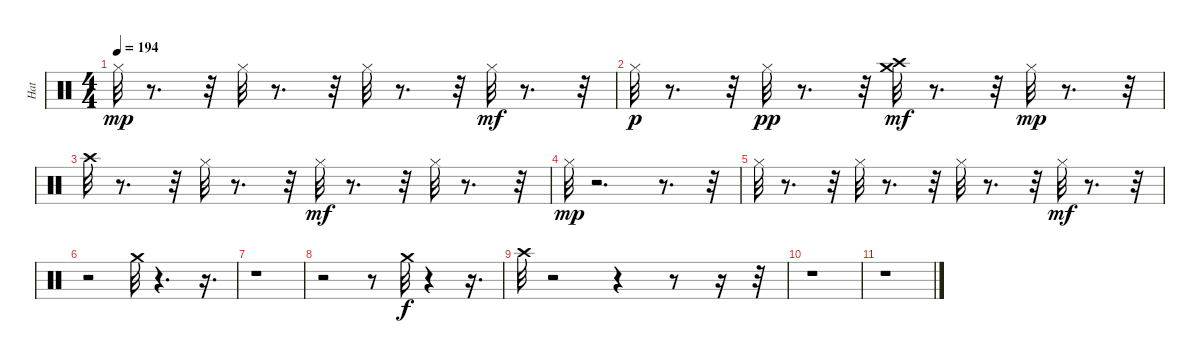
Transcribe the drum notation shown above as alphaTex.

\track ("Hat" "Hat") {instrument percussion}
\staff {score}
\articulation defaults
\ts (4 4)
\tempo 194
\clef neutral
\ks c "Hi-Hat (closed)".32{dy mp}
r.8{d} r.32 "Hi-Hat (closed)".32 r.8{d} r.32 "Hi-Hat (closed)".32 r.8{d} r.32 "Hi-Hat (closed)".32{dy mf} r.8{d} r.32 |
"Hi-Hat (closed)".32{dy p} r.8{d} r.32 "Hi-Hat (closed)".32{dy pp} r.8{d} r.32 ("Crash high (hit)" "Crash medium (hit)").32{dy mf} r.8{d} r.32 "Hi-Hat (closed)".32{dy mp} r.8{d} r.32 |
"Crash high (hit)".32 r.8{d} r.32 "Hi-Hat (closed)".32 r.8{d} r.32 "Hi-Hat (closed)".32{dy mf} r.8{d} r.32 "Hi-Hat (closed)".32 r.8{d} r.32 |
"Hi-Hat (closed)".32{dy mp} r.2{d} r.8{d} r.32 |
"Hi-Hat (closed)".32 r.8{d} r.32 "Hi-Hat (closed)".32 r.8{d} r.32 "Hi-Hat (closed)".32 r.8{d} r.32 "Hi-Hat (closed)".32{dy mf} r.8{d} r.32 |
r.2 "Crash medium (hit)".32 r.4{d} r.16{d} |
r.1 |
r.2 r.8 "Crash medium (hit)".32{dy f} r.4 r.16{d} |
"Crash high (hit)".32 r.2 r.4 r.8 r.16 r.32 |
r.1 |
r.1
